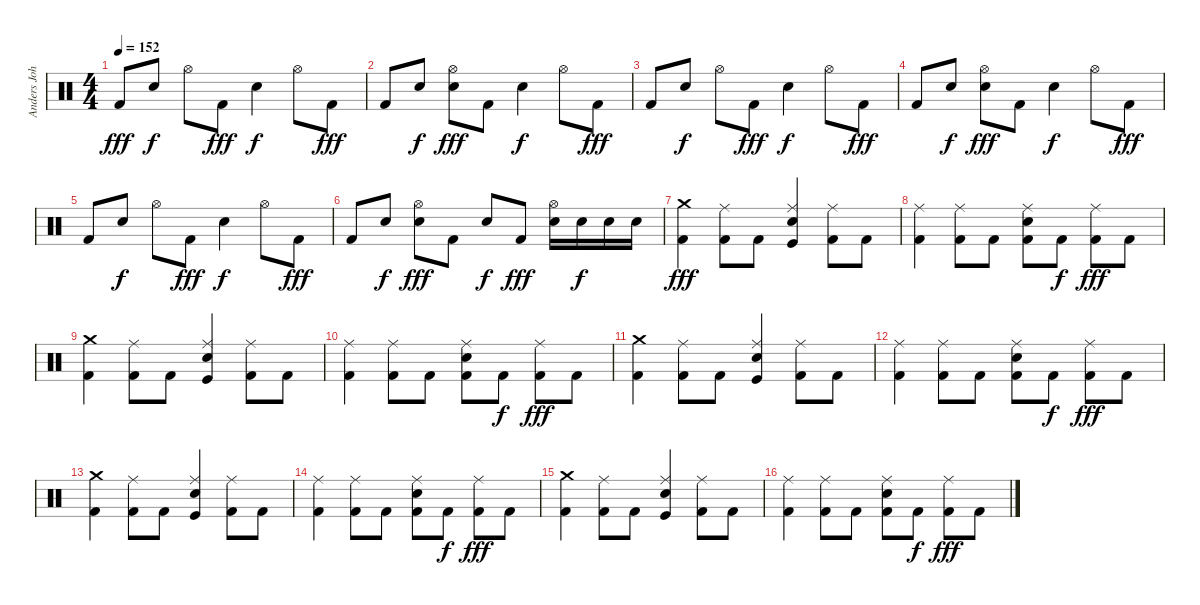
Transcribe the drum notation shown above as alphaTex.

\track ("Anders Johansson (Drums)" "Anders Joh") {instrument percussion}
\staff {score}
\articulation defaults
\ts (4 4)
\tempo 152
\clef neutral
\ks c "Kick (hit) 2".8{dy fff} "Electric Snare (hit)".8{dy f} "Hi-Hat (open)".8 "Kick (hit) 2".8{dy fff} "Electric Snare (hit)".4{dy f} "Hi-Hat (open)".8 "Kick (hit) 2".8{dy fff}
|
"Kick (hit) 2".8 "Electric Snare (hit)".8{dy f} ("Electric Snare (hit)" "Hi-Hat (open)").8{dy fff} "Kick (hit) 2".8 "Electric Snare (hit)".4{dy f} "Hi-Hat (open)".8 "Kick (hit) 2".8{dy fff} |
"Kick (hit) 2".8 "Electric Snare (hit)".8{dy f} "Hi-Hat (open)".8 "Kick (hit) 2".8{dy fff} "Electric Snare (hit)".4{dy f} "Hi-Hat (open)".8 "Kick (hit) 2".8{dy fff} |
"Kick (hit) 2".8 "Electric Snare (hit)".8{dy f} ("Electric Snare (hit)" "Hi-Hat (open)").8{dy fff} "Kick (hit) 2".8 "Electric Snare (hit)".4{dy f} "Hi-Hat (open)".8 "Kick (hit) 2".8{dy fff} |
"Kick (hit) 2".8 "Electric Snare (hit)".8{dy f} "Hi-Hat (open)".8 "Kick (hit) 2".8{dy fff} "Electric Snare (hit)".4{dy f} "Hi-Hat (open)".8 "Kick (hit) 2".8{dy fff} |
"Kick (hit) 2".8 "Electric Snare (hit)".8{dy f} ("Electric Snare (hit)" "Hi-Hat (open)").8{dy fff} "Kick (hit) 2".8 "Electric Snare (hit)".8{dy f} "Kick (hit) 2".8{dy fff} ("Electric Snare (hit)" "Hi-Hat (open)").16 "Electric Snare (hit)".16{dy f} "Electric Snare (hit)".16 "Electric Snare (hit)".16 |
("Kick (hit) 2" "Crash medium (hit)").4{dy fff} ("Kick (hit) 2" "Ride (middle)").8 "Kick (hit) 2".8 ("Kick (hit)" "Electric Snare (hit)" "Ride (middle)").4 ("Kick (hit) 2" "Ride (middle)").8 "Kick (hit) 2".8 |
("Kick (hit) 2" "Ride (middle)").4 ("Kick (hit) 2" "Ride (middle)").8 "Kick (hit) 2".8 ("Kick (hit) 2" "Electric Snare (hit)" "Ride (middle)").8 "Kick (hit) 2".8{dy f} ("Kick (hit) 2" "Ride (middle)").8{dy fff} "Kick (hit) 2".8 |
("Kick (hit) 2" "Crash medium (hit)").4 ("Kick (hit) 2" "Ride (middle)").8 "Kick (hit) 2".8 ("Kick (hit)" "Electric Snare (hit)" "Ride (middle)").4 ("Kick (hit) 2" "Ride (middle)").8 "Kick (hit) 2".8 |
("Kick (hit) 2" "Ride (middle)").4 ("Kick (hit) 2" "Ride (middle)").8 "Kick (hit) 2".8 ("Kick (hit) 2" "Electric Snare (hit)" "Ride (middle)").8 "Kick (hit) 2".8{dy f} ("Kick (hit) 2" "Ride (middle)").8{dy fff} "Kick (hit) 2".8 |
("Kick (hit) 2" "Crash medium (hit)").4 ("Kick (hit) 2" "Ride (middle)").8 "Kick (hit) 2".8 ("Kick (hit)" "Electric Snare (hit)" "Ride (middle)").4 ("Kick (hit) 2" "Ride (middle)").8 "Kick (hit) 2".8 |
("Kick (hit) 2" "Ride (middle)").4 ("Kick (hit) 2" "Ride (middle)").8 "Kick (hit) 2".8 ("Kick (hit) 2" "Electric Snare (hit)" "Ride (middle)").8 "Kick (hit) 2".8{dy f} ("Kick (hit) 2" "Ride (middle)").8{dy fff} "Kick (hit) 2".8 |
("Kick (hit) 2" "Crash medium (hit)").4 ("Kick (hit) 2" "Ride (middle)").8 "Kick (hit) 2".8 ("Kick (hit)" "Electric Snare (hit)" "Ride (middle)").4 ("Kick (hit) 2" "Ride (middle)").8 "Kick (hit) 2".8 |
("Kick (hit) 2" "Ride (middle)").4 ("Kick (hit) 2" "Ride (middle)").8 "Kick (hit) 2".8 ("Kick (hit) 2" "Electric Snare (hit)" "Ride (middle)").8 "Kick (hit) 2".8{dy f} ("Kick (hit) 2" "Ride (middle)").8{dy fff} "Kick (hit) 2".8 |
("Kick (hit) 2" "Crash medium (hit)").4 ("Kick (hit) 2" "Ride (middle)").8 "Kick (hit) 2".8 ("Kick (hit)" "Electric Snare (hit)" "Ride (middle)").4 ("Kick (hit) 2" "Ride (middle)").8 "Kick (hit) 2".8 |
("Kick (hit) 2" "Ride (middle)").4 ("Kick (hit) 2" "Ride (middle)").8 "Kick (hit) 2".8 ("Kick (hit) 2" "Electric Snare (hit)" "Ride (middle)").8 "Kick (hit) 2".8{dy f} ("Kick (hit) 2" "Ride (middle)").8{dy fff} "Kick (hit) 2".8
